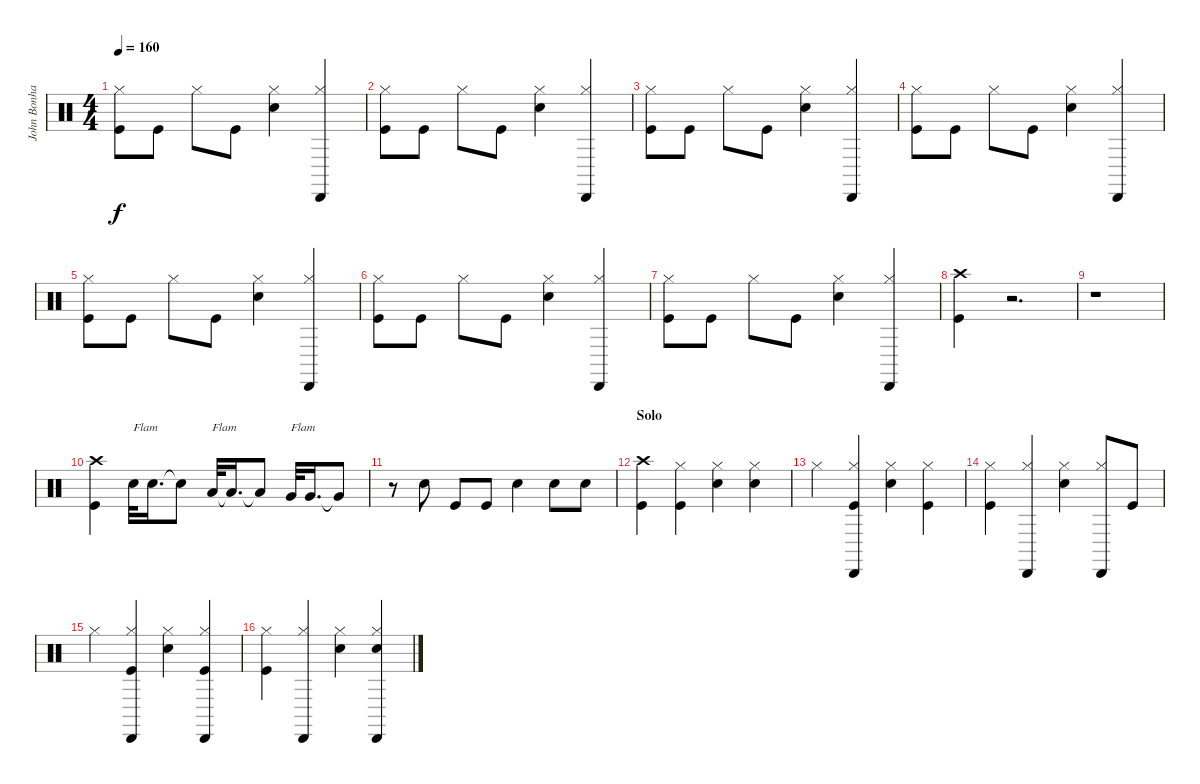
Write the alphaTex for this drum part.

\track ("John Bonham - Drums" "John Bonha") {instrument percussion}
\staff {score}
\articulation defaults
\ts (4 4)
\tempo 160
\clef neutral
\ks c
("Hi-Hat (closed)" "Kick (hit)").8{dy f} "Kick (hit)".8 "Hi-Hat (closed)".8 "Kick (hit)".8 ("Hi-Hat (closed)" "Snare (hit) 2").4 ("Hi-Hat (closed)" "Cabasa (hit)").4 |
("Hi-Hat (closed)" "Kick (hit)").8 "Kick (hit)".8 "Hi-Hat (closed)".8 "Kick (hit)".8 ("Hi-Hat (closed)" "Snare (hit) 2").4 ("Hi-Hat (closed)" "Cabasa (hit)").4 |
("Hi-Hat (closed)" "Kick (hit)").8 "Kick (hit)".8 "Hi-Hat (closed)".8 "Kick (hit)".8 ("Hi-Hat (closed)" "Snare (hit) 2").4 ("Hi-Hat (closed)" "Cabasa (hit)").4 |
("Hi-Hat (closed)" "Kick (hit)").8 "Kick (hit)".8 "Hi-Hat (closed)".8 "Kick (hit)".8 ("Hi-Hat (closed)" "Snare (hit) 2").4 ("Hi-Hat (closed)" "Cabasa (hit)").4 |
("Hi-Hat (closed)" "Kick (hit)").8 "Kick (hit)".8 "Hi-Hat (closed)".8 "Kick (hit)".8 ("Hi-Hat (closed)" "Snare (hit) 2").4 ("Hi-Hat (closed)" "Cabasa (hit)").4 |
("Hi-Hat (closed)" "Kick (hit)").8 "Kick (hit)".8 "Hi-Hat (closed)".8 "Kick (hit)".8 ("Hi-Hat (closed)" "Snare (hit) 2").4 ("Hi-Hat (closed)" "Cabasa (hit)").4 |
("Hi-Hat (closed)" "Kick (hit)").8 "Kick (hit)".8 "Hi-Hat (closed)".8 "Kick (hit)".8 ("Hi-Hat (closed)" "Snare (hit) 2").4 ("Hi-Hat (closed)" "Cabasa (hit)").4 |
("Crash high (hit)" "Kick (hit)").4 r.2{d} |
r.1 |
("Crash high (hit)" "Kick (hit)").4 "Snare (hit) 2".32{txt "Flam"} "Snare (hit) 2".16{d} "Snare (hit) 2"{t}.8 "Low Tom (hit)".32{txt "Flam"} "Low Tom (hit)"{t}.16{d} "Low Tom (hit)"{t}.8 "Very Low Tom (hit)".32{txt "Flam"} "Very Low Tom (hit)".16{d} "Very Low Tom (hit)"{t}.8 |
r.8 "Snare (hit) 2".8 "Kick (hit)".8 "Kick (hit)".8 "Snare (hit) 2".4 "Snare (hit) 2".8 "Snare (hit) 2".8 |
\section ("" "Solo")
("Kick (hit)" "Crash high (hit)").4 ("Kick (hit)" "Hi-Hat (closed)").4 ("Snare (hit) 2" "Hi-Hat (closed)").4 ("Snare (hit) 2" "Hi-Hat (closed)").4 |
"Hi-Hat (closed)".4 ("Cabasa (hit)" "Hi-Hat (closed)" "Kick (hit)").4 ("Snare (hit) 2" "Hi-Hat (closed)").4 ("Hi-Hat (closed)" "Kick (hit)").4 |
("Kick (hit)" "Hi-Hat (closed)").4 ("Hi-Hat (closed)" "Cabasa (hit)").4 ("Snare (hit) 2" "Hi-Hat (closed)").4 ("Hi-Hat (closed)" "Cabasa (hit)").8 "Kick (hit)".8 |
"Hi-Hat (closed)".4 ("Hi-Hat (closed)" "Cabasa (hit)" "Kick (hit)").4 ("Snare (hit) 2" "Hi-Hat (closed)").4 ("Cabasa (hit)" "Hi-Hat (closed)" "Kick (hit)").4 |
("Kick (hit)" "Hi-Hat (closed)").4 ("Hi-Hat (closed)" "Cabasa (hit)").4 ("Hi-Hat (closed)" "Snare (hit) 2").4 ("Hi-Hat (closed)" "Snare (hit) 2" "Cabasa (hit)").4
